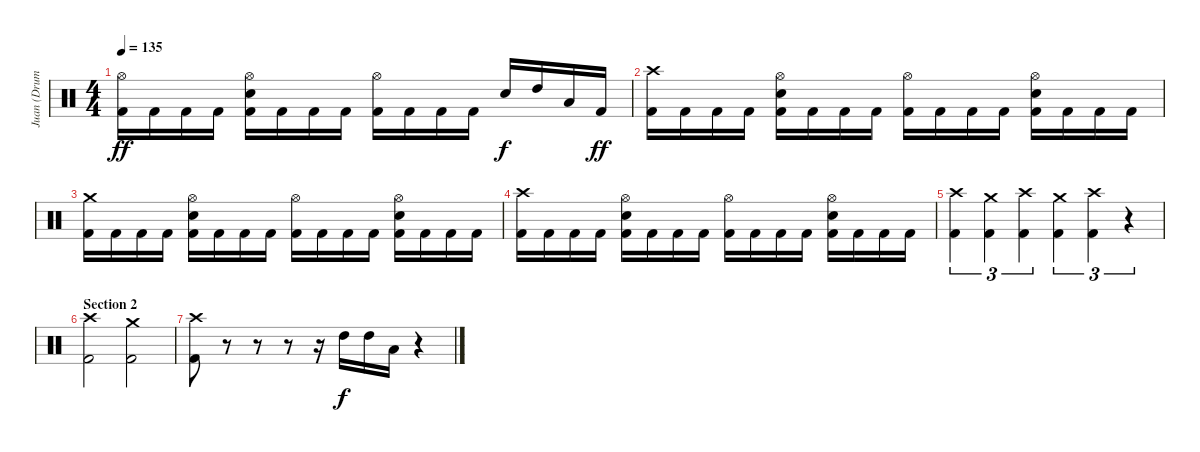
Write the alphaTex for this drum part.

\track ("Juan (Drums)" "Juan (Drum") {instrument percussion}
\staff {score}
\articulation defaults
\ts (4 4)
\tempo 135
\clef neutral
\ks c
("Hi-Hat (open)" "Kick (hit) 2").16{dy ff} "Kick (hit) 2".16 "Kick (hit) 2".16 "Kick (hit) 2".16 ("Hi-Hat (open)" "Electric Snare (hit)" "Kick (hit) 2").16 "Kick (hit) 2".16 "Kick (hit) 2".16 "Kick (hit) 2".16 ("Hi-Hat (open)" "Kick (hit) 2").16 "Kick (hit) 2".16 "Kick (hit) 2".16 "Kick (hit) 2".16 "Electric Snare (hit)".16{dy f} "High Tom (hit)".16 "Low Tom (hit)".16 "Kick (hit) 2".16{dy ff} |
("Crash high (hit)" "Kick (hit) 2").16 "Kick (hit) 2".16 "Kick (hit) 2".16 "Kick (hit) 2".16 ("Hi-Hat (open)" "Electric Snare (hit)" "Kick (hit) 2").16 "Kick (hit) 2".16 "Kick (hit) 2".16 "Kick (hit) 2".16 ("Hi-Hat (open)" "Kick (hit) 2").16 "Kick (hit) 2".16 "Kick (hit) 2".16 "Kick (hit) 2".16 ("Hi-Hat (open)" "Electric Snare (hit)" "Kick (hit) 2").16 "Kick (hit) 2".16 "Kick (hit) 2".16 "Kick (hit) 2".16 |
("Crash medium (hit)" "Kick (hit) 2").16 "Kick (hit) 2".16 "Kick (hit) 2".16 "Kick (hit) 2".16 ("Hi-Hat (open)" "Electric Snare (hit)" "Kick (hit) 2").16 "Kick (hit) 2".16 "Kick (hit) 2".16 "Kick (hit) 2".16 ("Hi-Hat (open)" "Kick (hit) 2").16 "Kick (hit) 2".16 "Kick (hit) 2".16 "Kick (hit) 2".16 ("Hi-Hat (open)" "Electric Snare (hit)" "Kick (hit) 2").16 "Kick (hit) 2".16 "Kick (hit) 2".16 "Kick (hit) 2".16 |
("Crash high (hit)" "Kick (hit) 2").16 "Kick (hit) 2".16 "Kick (hit) 2".16 "Kick (hit) 2".16 ("Hi-Hat (open)" "Electric Snare (hit)" "Kick (hit) 2").16 "Kick (hit) 2".16 "Kick (hit) 2".16 "Kick (hit) 2".16 ("Hi-Hat (open)" "Kick (hit) 2").16 "Kick (hit) 2".16 "Kick (hit) 2".16 "Kick (hit) 2".16 ("Hi-Hat (open)" "Electric Snare (hit)" "Kick (hit) 2").16 "Kick (hit) 2".16 "Kick (hit) 2".16 "Kick (hit) 2".16 |
("Crash high (hit)" "Kick (hit) 2").4{tu (3 2)} ("Crash medium (hit)" "Kick (hit) 2").4{tu (3 2)} ("Crash high (hit)" "Kick (hit) 2").4{tu (3 2)} ("Crash medium (hit)" "Kick (hit) 2").4{tu (3 2)} ("Crash high (hit)" "Kick (hit) 2").4{tu (3 2)} r.4{tu (3 2)} |
\section ("" "Section 2")
("Crash high (hit)" "Kick (hit) 2").2 ("Crash medium (hit)" "Kick (hit) 2").2 |
("Crash high (hit)" "Kick (hit) 2").8 r.8 r.8 r.8 r.16 "High Tom (hit)".16{dy f} "High Tom (hit)".16 "Low Tom (hit)".16 r.4
